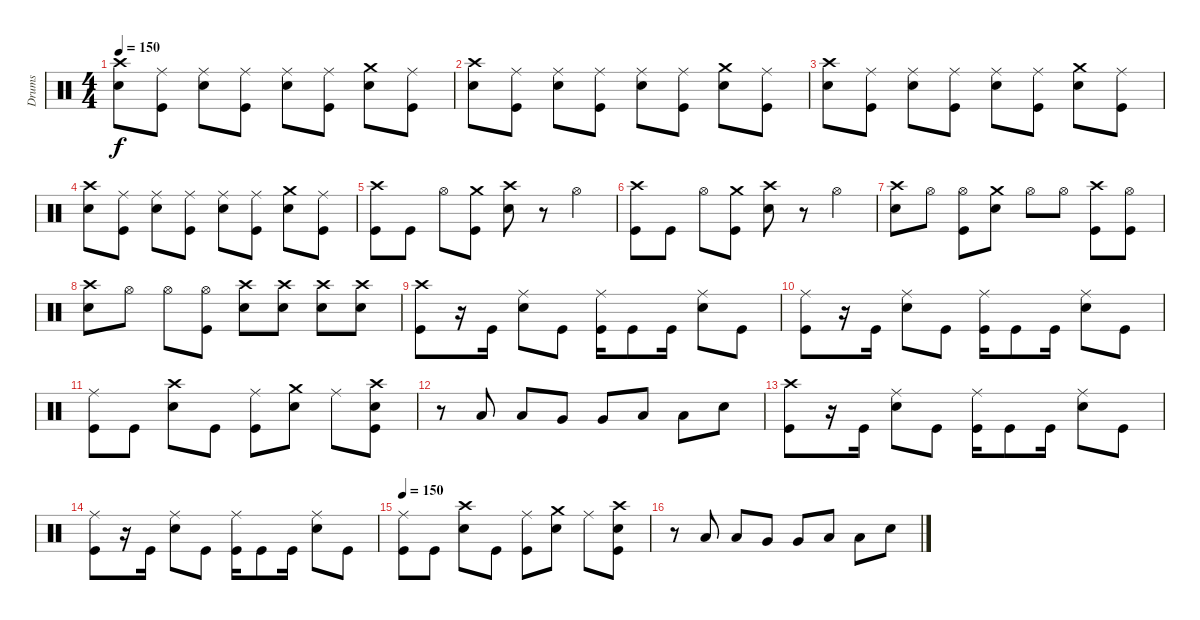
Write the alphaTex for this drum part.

\track ("Drums" "Drums") {instrument percussion}
\staff {score}
\articulation defaults
\ts (4 4)
\tempo 150
\clef neutral
\ks c
("Crash high (hit)" "Electric Snare (hit)").8{dy f} ("Ride (middle)" "Kick (hit)").8 ("Electric Snare (hit)" "Ride (middle)").8 ("Ride (middle)" "Kick (hit)").8 ("Ride (middle)" "Electric Snare (hit)").8 ("Ride (middle)" "Kick (hit)").8 ("Crash medium (hit)" "Electric Snare (hit)").8 ("Ride (middle)" "Kick (hit)").8 |
("Crash high (hit)" "Electric Snare (hit)").8 ("Kick (hit)" "Ride (middle)").8 ("Ride (middle)" "Electric Snare (hit)").8 ("Kick (hit)" "Ride (middle)").8 ("Ride (middle)" "Electric Snare (hit)").8 ("Kick (hit)" "Ride (middle)").8 ("Crash medium (hit)" "Electric Snare (hit)").8 ("Ride (middle)" "Kick (hit)").8 |
("Electric Snare (hit)" "Crash high (hit)").8 ("Ride (middle)" "Kick (hit)").8 ("Electric Snare (hit)" "Ride (middle)").8 ("Ride (middle)" "Kick (hit)").8 ("Ride (middle)" "Electric Snare (hit)").8 ("Ride (middle)" "Kick (hit)").8 ("Crash medium (hit)" "Electric Snare (hit)").8 ("Kick (hit)" "Ride (middle)").8 |
("Crash high (hit)" "Electric Snare (hit)").8 ("Kick (hit)" "Ride (middle)").8 ("Ride (middle)" "Electric Snare (hit)").8 ("Ride (middle)" "Kick (hit)").8 ("Electric Snare (hit)" "Ride (middle)").8 ("Ride (middle)" "Kick (hit)").8 ("Electric Snare (hit)" "Crash medium (hit)").8 ("Kick (hit)" "Ride (middle)").8 |
("Kick (hit)" "Crash high (hit)").8 "Kick (hit)".8 "Hi-Hat (open)".8 ("Crash medium (hit)" "Kick (hit)").8 ("Crash high (hit)" "Electric Snare (hit)").8 r.8 "Hi-Hat (open)".4 |
("Crash high (hit)" "Kick (hit)").8 "Kick (hit)".8 "Hi-Hat (open)".8 ("Kick (hit)" "Crash medium (hit)").8 ("Crash high (hit)" "Electric Snare (hit)").8 r.8 "Hi-Hat (open)".4 |
("Crash high (hit)" "Electric Snare (hit)").8 "Hi-Hat (open)".8 ("Kick (hit)" "Hi-Hat (open)").8 ("Crash medium (hit)" "Electric Snare (hit)").8 "Hi-Hat (open)".8 "Hi-Hat (open)".8 ("Kick (hit)" "Crash high (hit)").8 ("Hi-Hat (open)" "Kick (hit)").8 |
("Electric Snare (hit)" "Crash high (hit)").8 "Hi-Hat (open)".8 "Hi-Hat (open)".8 ("Hi-Hat (open)" "Kick (hit)").8 ("Crash high (hit)" "Electric Snare (hit)").8 ("Crash high (hit)" "Electric Snare (hit)").8 ("Electric Snare (hit)" "Crash high (hit)").8 ("Electric Snare (hit)" "Crash high (hit)").8 |
("Crash high (hit)" "Kick (hit)").8 r.16 "Kick (hit)".16 ("Ride (middle)" "Electric Snare (hit)").8 "Kick (hit)".8 ("Ride (middle)" "Kick (hit)").16 "Kick (hit)".8 "Kick (hit)".16 ("Ride (middle)" "Electric Snare (hit)").8 "Kick (hit)".8 |
("Kick (hit)" "Ride (middle)").8 r.16 "Kick (hit)".16 ("Ride (middle)" "Electric Snare (hit)").8 "Kick (hit)".8 ("Ride (middle)" "Kick (hit)").16 "Kick (hit)".8 "Kick (hit)".16 ("Ride (middle)" "Electric Snare (hit)").8 "Kick (hit)".8 |
("Ride (middle)" "Kick (hit)").8 "Kick (hit)".8 ("Crash high (hit)" "Electric Snare (hit)").8 "Kick (hit)".8 ("Ride (middle)" "Kick (hit)").8 ("Electric Snare (hit)" "Crash medium (hit)").8 "Ride (middle)".8 ("Crash high (hit)" "Electric Snare (hit)" "Kick (hit)").8 |
r.8 "Low Tom (hit)".8 "Low Tom (hit)".8 "Very Low Tom (hit)".8 "Very Low Tom (hit)".8 "Low Floor Tom (hit)".8 "Low Floor Tom (hit)".8 "Electric Snare (hit)".8 |
("Crash high (hit)" "Kick (hit)").8 r.16 "Kick (hit)".16 ("Ride (middle)" "Electric Snare (hit)").8 "Kick (hit)".8 ("Ride (middle)" "Kick (hit)").16 "Kick (hit)".8 "Kick (hit)".16 ("Ride (middle)" "Electric Snare (hit)").8 "Kick (hit)".8 |
("Kick (hit)" "Ride (middle)").8 r.16 "Kick (hit)".16 ("Ride (middle)" "Electric Snare (hit)").8 "Kick (hit)".8 ("Ride (middle)" "Kick (hit)").16 "Kick (hit)".8 "Kick (hit)".16 ("Ride (middle)" "Electric Snare (hit)").8 "Kick (hit)".8 |
\tempo 150
("Ride (middle)" "Kick (hit)").8 "Kick (hit)".8 ("Crash high (hit)" "Electric Snare (hit)").8 "Kick (hit)".8 ("Ride (middle)" "Kick (hit)").8 ("Electric Snare (hit)" "Crash medium (hit)").8 "Ride (middle)".8 ("Crash high (hit)" "Electric Snare (hit)" "Kick (hit)").8 |
r.8 "Low Tom (hit)".8 "Low Tom (hit)".8 "Very Low Tom (hit)".8 "Very Low Tom (hit)".8 "Low Floor Tom (hit)".8 "Low Floor Tom (hit)".8 "Electric Snare (hit)".8
